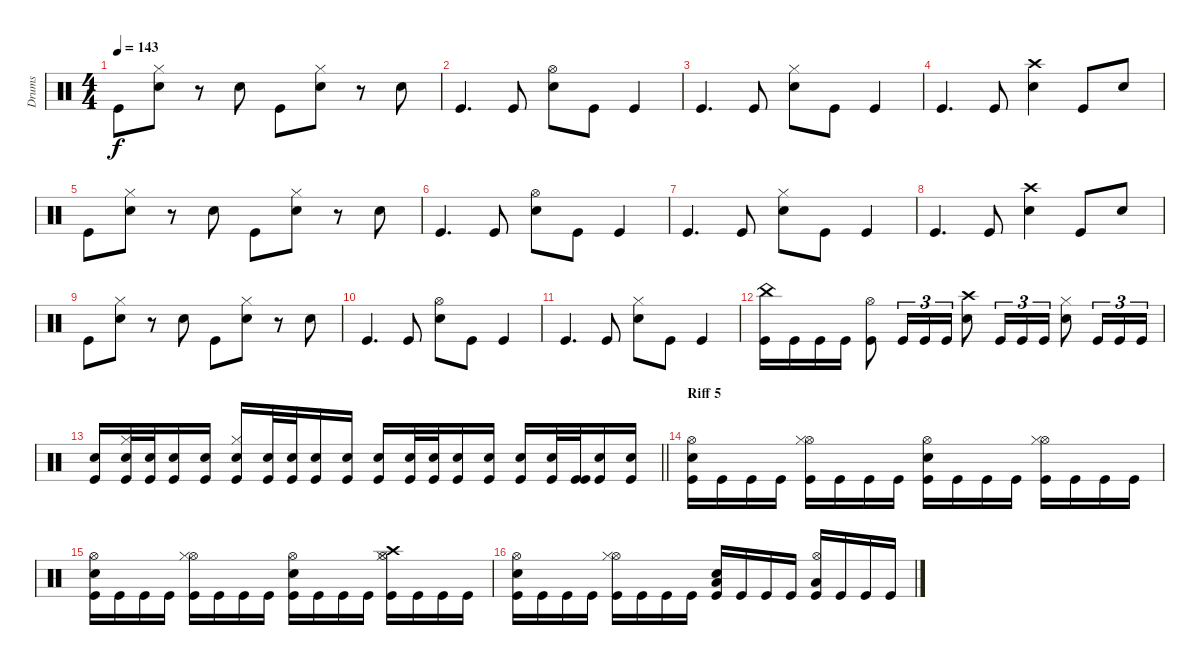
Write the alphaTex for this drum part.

\track ("Drums" "Drums") {instrument percussion}
\staff {score}
\articulation defaults
\ts (4 4)
\tempo 143
\clef neutral
\ks c "Kick (hit)".8{dy f}
("Hi-Hat (closed)" "Snare (hit) 2").8 r.8 "Snare (hit) 2".8 "Kick (hit)".8 ("Hi-Hat (closed)" "Snare (hit) 2").8 r.8 "Snare (hit) 2".8 |
"Kick (hit)".4{d} "Kick (hit)".8 ("Hi-Hat (open)" "Snare (hit) 2").8 "Kick (hit)".8 "Kick (hit)".4 |
"Kick (hit)".4{d} "Kick (hit)".8 ("Hi-Hat (closed)" "Snare (hit) 2").8 "Kick (hit)".8 "Kick (hit)".4 |
"Kick (hit)".4{d} "Kick (hit)".8 ("Crash high (hit)" "Snare (hit) 2").4 "Kick (hit)".8 "Snare (hit) 2".8 |
"Kick (hit)".8 ("Hi-Hat (closed)" "Snare (hit) 2").8 r.8 "Snare (hit) 2".8 "Kick (hit)".8 ("Hi-Hat (closed)" "Snare (hit) 2").8 r.8 "Snare (hit) 2".8 |
"Kick (hit)".4{d} "Kick (hit)".8 ("Hi-Hat (open)" "Snare (hit) 2").8 "Kick (hit)".8 "Kick (hit)".4 |
"Kick (hit)".4{d} "Kick (hit)".8 ("Hi-Hat (closed)" "Snare (hit) 2").8 "Kick (hit)".8 "Kick (hit)".4 |
"Kick (hit)".4{d} "Kick (hit)".8 ("Crash high (hit)" "Snare (hit) 2").4 "Kick (hit)".8 "Snare (hit) 2".8 |
"Kick (hit)".8 ("Hi-Hat (closed)" "Snare (hit) 2").8 r.8 "Snare (hit) 2".8 "Kick (hit)".8 ("Hi-Hat (closed)" "Snare (hit) 2").8 r.8 "Snare (hit) 2".8 |
"Kick (hit)".4{d} "Kick (hit)".8 ("Hi-Hat (open)" "Snare (hit) 2").8 "Kick (hit)".8 "Kick (hit)".4 |
"Kick (hit)".4{d} "Kick (hit)".8 ("Hi-Hat (closed)" "Snare (hit) 2").8 "Kick (hit)".8 "Kick (hit)".4 |
("China (hit)" "Kick (hit)").16 "Kick (hit)".16 "Kick (hit)".16 "Kick (hit)".16 ("Hi-Hat (open)" "Kick (hit)").8 "Kick (hit)".16{tu (3 2)} "Kick (hit)".16{tu (3 2)} "Kick (hit)".16{tu (3 2)} ("Crash high (hit)" "Snare (hit) 2").8 "Kick (hit)".16{tu (3 2)} "Kick (hit)".16{tu (3 2)} "Kick (hit)".16{tu (3 2)} ("Hi-Hat (closed)" "Snare (hit) 2").8 "Kick (hit)".16{tu (3 2)} "Kick (hit)".16{tu (3 2)} "Kick (hit)".16{tu (3 2)} |
\barLineRight lightlight
("Snare (hit) 2" "Kick (hit)").16 ("Hi-Hat (closed)" "Snare (hit) 2" "Kick (hit)").32 ("Snare (hit) 2" "Kick (hit)").32 ("Snare (hit) 2" "Kick (hit)").16 ("Snare (hit) 2" "Kick (hit)").16 ("Hi-Hat (closed)" "Snare (hit) 2" "Kick (hit)").16 ("Snare (hit) 2" "Kick (hit)").32 ("Snare (hit) 2" "Kick (hit)").32 ("Kick (hit)" "Snare (hit) 2").16 ("Kick (hit)" "Snare (hit) 2").16 ("Kick (hit)" "Snare (hit) 2").16 ("Kick (hit)" "Snare (hit) 2").32 ("Kick (hit)" "Snare (hit) 2").32 ("Kick (hit)" "Snare (hit) 2").16 ("Kick (hit)" "Snare (hit) 2").16 ("Kick (hit)" "Snare (hit) 2").16 ("Kick (hit)" "Snare (hit) 2").32 ("Kick (hit)" "Kick (hit)").32 ("Snare (hit) 2" "Kick (hit)").16 ("Snare (hit) 2" "Kick (hit)").16 |
\section ("" "Riff 5")
("Snare (hit) 2" "Hi-Hat (open)" "Kick (hit)").16 "Kick (hit)".16 "Kick (hit)".16 "Kick (hit)".16 ("Hi-Hat (open)" "Hi-Hat (closed)" "Kick (hit)").16 "Kick (hit)".16 "Kick (hit)".16 "Kick (hit)".16 ("Snare (hit) 2" "Hi-Hat (open)" "Kick (hit)").16 "Kick (hit)".16 "Kick (hit)".16 "Kick (hit)".16 ("Hi-Hat (open)" "Hi-Hat (closed)" "Kick (hit)").16 "Kick (hit)".16 "Kick (hit)".16 "Kick (hit)".16 |
("Snare (hit) 2" "Hi-Hat (open)" "Kick (hit)").16 "Kick (hit)".16 "Kick (hit)".16 "Kick (hit)".16 ("Hi-Hat (open)" "Hi-Hat (closed)" "Kick (hit)").16 "Kick (hit)".16 "Kick (hit)".16 "Kick (hit)".16 ("Snare (hit) 2" "Hi-Hat (open)" "Kick (hit)").16 "Kick (hit)".16 "Kick (hit)".16 "Kick (hit)".16 ("Crash high (hit)" "Hi-Hat (open)" "Hi-Hat (closed)" "Kick (hit)").16 "Kick (hit)".16 "Kick (hit)".16 "Kick (hit)".16 |
("Snare (hit) 2" "Hi-Hat (open)" "Kick (hit)").16 "Kick (hit)".16 "Kick (hit)".16 "Kick (hit)".16 ("Hi-Hat (open)" "Hi-Hat (closed)" "Kick (hit)").16 "Kick (hit)".16 "Kick (hit)".16 "Kick (hit)".16 ("Snare (hit) 2" "Low Floor Tom (hit)" "Kick (hit)").16 "Kick (hit)".16 "Kick (hit)".16 "Kick (hit)".16 ("Hi-Hat (open)" "Low Floor Tom (hit)" "Kick (hit)").16 "Kick (hit)".16 "Kick (hit)".16 "Kick (hit)".16
